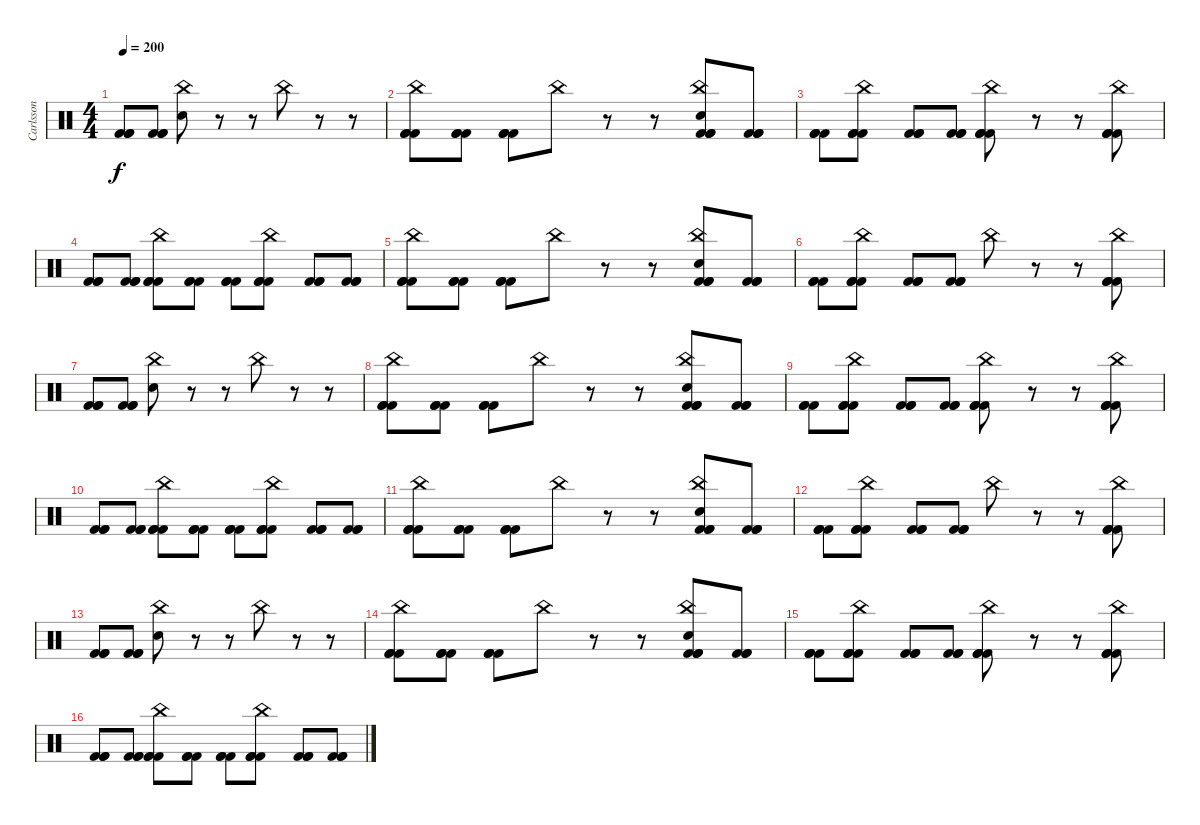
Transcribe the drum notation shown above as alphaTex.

\track ("Carlsson" "Carlsson") {instrument percussion}
\staff {score}
\articulation defaults
\ts (4 4)
\tempo 200
\clef neutral
\ks c
("Kick (hit) 2" "Kick (hit) 2" "Kick (hit) 2").8{dy f} ("Kick (hit) 2" "Kick (hit) 2" "Kick (hit) 2").8 ("China (hit)" "Snare (hit) 2").8 r.8 r.8 "China (hit)".8 r.8 r.8 |
("China (hit)" "Kick (hit) 2" "Kick (hit) 2" "Kick (hit) 2").8 ("Kick (hit) 2" "Kick (hit) 2" "Kick (hit) 2").8 ("Kick (hit) 2" "Kick (hit) 2" "Kick (hit) 2").8 "China (hit)".8 r.8 r.8 ("China (hit)" "Snare (hit) 2" "Kick (hit) 2" "Kick (hit) 2" "Kick (hit) 2").8 ("Kick (hit) 2" "Kick (hit) 2" "Kick (hit) 2").8 |
("Kick (hit) 2" "Kick (hit) 2" "Kick (hit) 2").8 ("China (hit)" "Kick (hit) 2" "Kick (hit) 2" "Kick (hit) 2").8 ("Kick (hit) 2" "Kick (hit) 2" "Kick (hit) 2").8 ("Kick (hit) 2" "Kick (hit) 2" "Kick (hit) 2").8 ("China (hit)" "Kick (hit) 2" "Kick (hit) 2" "Kick (hit) 2").8 r.8 r.8 ("China (hit)" "Kick (hit) 2" "Kick (hit) 2" "Kick (hit) 2").8 |
("Kick (hit) 2" "Kick (hit) 2" "Kick (hit) 2").8 ("Kick (hit) 2" "Kick (hit) 2" "Kick (hit) 2").8 ("China (hit)" "Kick (hit) 2" "Kick (hit) 2" "Kick (hit) 2").8 ("Kick (hit) 2" "Kick (hit) 2" "Kick (hit) 2").8 ("Kick (hit) 2" "Kick (hit) 2" "Kick (hit) 2").8 ("China (hit)" "Kick (hit) 2" "Kick (hit) 2" "Kick (hit) 2").8 ("Kick (hit) 2" "Kick (hit) 2" "Kick (hit) 2").8 ("Kick (hit) 2" "Kick (hit) 2" "Kick (hit) 2").8 |
("China (hit)" "Kick (hit) 2" "Kick (hit) 2" "Kick (hit) 2").8 ("Kick (hit) 2" "Kick (hit) 2" "Kick (hit) 2").8 ("Kick (hit) 2" "Kick (hit) 2" "Kick (hit) 2").8 "China (hit)".8 r.8 r.8 ("China (hit)" "Snare (hit) 2" "Kick (hit) 2" "Kick (hit) 2" "Kick (hit) 2").8 ("Kick (hit) 2" "Kick (hit) 2" "Kick (hit) 2").8 |
("Kick (hit) 2" "Kick (hit) 2" "Kick (hit) 2").8 ("China (hit)" "Kick (hit) 2" "Kick (hit) 2" "Kick (hit) 2").8 ("Kick (hit) 2" "Kick (hit) 2" "Kick (hit) 2").8 ("Kick (hit) 2" "Kick (hit) 2" "Kick (hit) 2").8 "China (hit)".8 r.8 r.8 ("China (hit)" "Kick (hit) 2" "Kick (hit) 2" "Kick (hit) 2").8 |
("Kick (hit) 2" "Kick (hit) 2" "Kick (hit) 2").8 ("Kick (hit) 2" "Kick (hit) 2" "Kick (hit) 2").8 ("China (hit)" "Snare (hit) 2").8 r.8 r.8 "China (hit)".8 r.8 r.8 |
("China (hit)" "Kick (hit) 2" "Kick (hit) 2" "Kick (hit) 2").8 ("Kick (hit) 2" "Kick (hit) 2" "Kick (hit) 2").8 ("Kick (hit) 2" "Kick (hit) 2" "Kick (hit) 2").8 "China (hit)".8 r.8 r.8 ("China (hit)" "Snare (hit) 2" "Kick (hit) 2" "Kick (hit) 2" "Kick (hit) 2").8 ("Kick (hit) 2" "Kick (hit) 2" "Kick (hit) 2").8 |
("Kick (hit) 2" "Kick (hit) 2" "Kick (hit) 2").8 ("China (hit)" "Kick (hit) 2" "Kick (hit) 2" "Kick (hit) 2").8 ("Kick (hit) 2" "Kick (hit) 2" "Kick (hit) 2").8 ("Kick (hit) 2" "Kick (hit) 2" "Kick (hit) 2").8 ("China (hit)" "Kick (hit) 2" "Kick (hit) 2" "Kick (hit) 2").8 r.8 r.8 ("China (hit)" "Kick (hit) 2" "Kick (hit) 2" "Kick (hit) 2").8 |
("Kick (hit) 2" "Kick (hit) 2" "Kick (hit) 2").8 ("Kick (hit) 2" "Kick (hit) 2" "Kick (hit) 2").8 ("China (hit)" "Kick (hit) 2" "Kick (hit) 2" "Kick (hit) 2").8 ("Kick (hit) 2" "Kick (hit) 2" "Kick (hit) 2").8 ("Kick (hit) 2" "Kick (hit) 2" "Kick (hit) 2").8 ("China (hit)" "Kick (hit) 2" "Kick (hit) 2" "Kick (hit) 2").8 ("Kick (hit) 2" "Kick (hit) 2" "Kick (hit) 2").8 ("Kick (hit) 2" "Kick (hit) 2" "Kick (hit) 2").8 |
("China (hit)" "Kick (hit) 2" "Kick (hit) 2" "Kick (hit) 2").8 ("Kick (hit) 2" "Kick (hit) 2" "Kick (hit) 2").8 ("Kick (hit) 2" "Kick (hit) 2" "Kick (hit) 2").8 "China (hit)".8 r.8 r.8 ("China (hit)" "Snare (hit) 2" "Kick (hit) 2" "Kick (hit) 2" "Kick (hit) 2").8 ("Kick (hit) 2" "Kick (hit) 2" "Kick (hit) 2").8 |
("Kick (hit) 2" "Kick (hit) 2" "Kick (hit) 2").8 ("China (hit)" "Kick (hit) 2" "Kick (hit) 2" "Kick (hit) 2").8 ("Kick (hit) 2" "Kick (hit) 2" "Kick (hit) 2").8 ("Kick (hit) 2" "Kick (hit) 2" "Kick (hit) 2").8 "China (hit)".8 r.8 r.8 ("China (hit)" "Kick (hit) 2" "Kick (hit) 2" "Kick (hit) 2").8 |
("Kick (hit) 2" "Kick (hit) 2" "Kick (hit) 2").8 ("Kick (hit) 2" "Kick (hit) 2" "Kick (hit) 2").8 ("China (hit)" "Snare (hit) 2").8 r.8 r.8 "China (hit)".8 r.8 r.8 |
("China (hit)" "Kick (hit) 2" "Kick (hit) 2" "Kick (hit) 2").8 ("Kick (hit) 2" "Kick (hit) 2" "Kick (hit) 2").8 ("Kick (hit) 2" "Kick (hit) 2" "Kick (hit) 2").8 "China (hit)".8 r.8 r.8 ("China (hit)" "Snare (hit) 2" "Kick (hit) 2" "Kick (hit) 2" "Kick (hit) 2").8 ("Kick (hit) 2" "Kick (hit) 2" "Kick (hit) 2").8 |
("Kick (hit) 2" "Kick (hit) 2" "Kick (hit) 2").8 ("China (hit)" "Kick (hit) 2" "Kick (hit) 2" "Kick (hit) 2").8 ("Kick (hit) 2" "Kick (hit) 2" "Kick (hit) 2").8 ("Kick (hit) 2" "Kick (hit) 2" "Kick (hit) 2").8 ("China (hit)" "Kick (hit) 2" "Kick (hit) 2" "Kick (hit) 2").8 r.8 r.8 ("China (hit)" "Kick (hit) 2" "Kick (hit) 2" "Kick (hit) 2").8 |
("Kick (hit) 2" "Kick (hit) 2" "Kick (hit) 2").8 ("Kick (hit) 2" "Kick (hit) 2" "Kick (hit) 2").8 ("China (hit)" "Kick (hit) 2" "Kick (hit) 2" "Kick (hit) 2").8 ("Kick (hit) 2" "Kick (hit) 2" "Kick (hit) 2").8 ("Kick (hit) 2" "Kick (hit) 2" "Kick (hit) 2").8 ("China (hit)" "Kick (hit) 2" "Kick (hit) 2" "Kick (hit) 2").8 ("Kick (hit) 2" "Kick (hit) 2" "Kick (hit) 2").8 ("Kick (hit) 2" "Kick (hit) 2" "Kick (hit) 2").8
